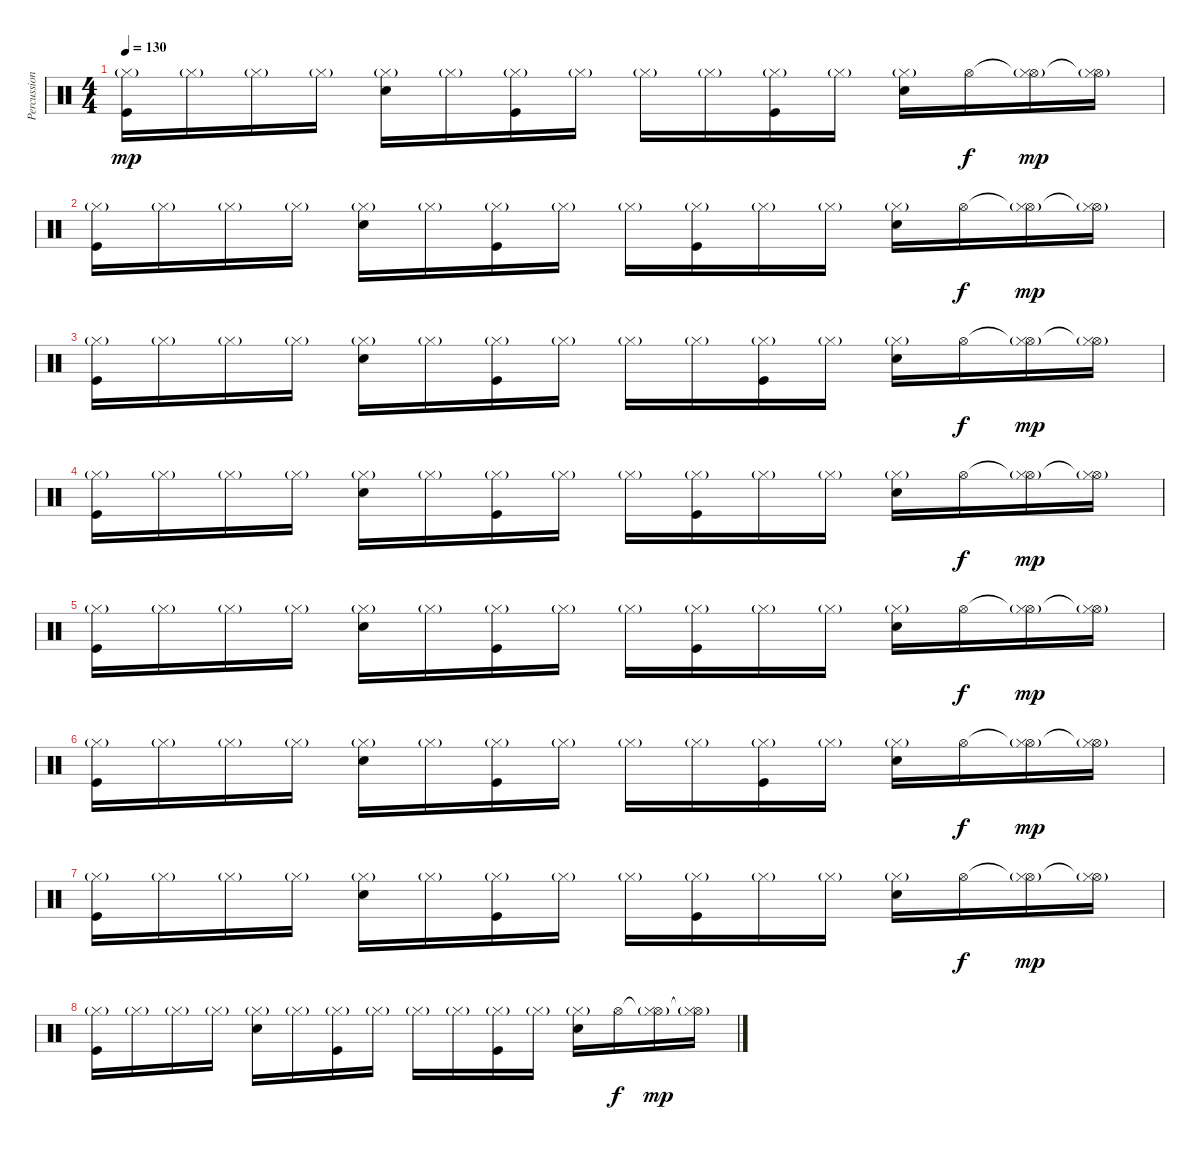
\track ("Percussion" "Percussion") {instrument percussion}
\staff {score}
\articulation defaults
\ts (4 4)
\tempo 130
\clef neutral
\ks c
("Hi-Hat (closed)"{g} "Kick (hit)").16{dy mp} "Hi-Hat (closed)"{g}.16 "Hi-Hat (closed)"{g}.16 "Hi-Hat (closed)"{g}.16 ("Hi-Hat (closed)"{g} "Hand Clap (hit)").16 "Hi-Hat (closed)"{g}.16 ("Hi-Hat (closed)"{g} "Kick (hit)").16 "Hi-Hat (closed)"{g}.16 "Hi-Hat (closed)"{g}.16 "Hi-Hat (closed)"{g}.16 ("Hi-Hat (closed)"{g} "Kick (hit)").16 "Hi-Hat (closed)"{g}.16 ("Hi-Hat (closed)"{g} "Hand Clap (hit)").16 "Hi-Hat (open)".16{dy f} ("Hi-Hat (open)"{t} "Hi-Hat (closed)"{g}).16{dy mp} ("Hi-Hat (open)"{t} "Hi-Hat (closed)"{g}).16 |
("Hi-Hat (closed)"{g} "Kick (hit)").16 "Hi-Hat (closed)"{g}.16 "Hi-Hat (closed)"{g}.16 "Hi-Hat (closed)"{g}.16 ("Hi-Hat (closed)"{g} "Hand Clap (hit)").16 "Hi-Hat (closed)"{g}.16 ("Hi-Hat (closed)"{g} "Kick (hit)").16 "Hi-Hat (closed)"{g}.16 "Hi-Hat (closed)"{g}.16 ("Hi-Hat (closed)"{g} "Kick (hit)").16 "Hi-Hat (closed)"{g}.16 "Hi-Hat (closed)"{g}.16 ("Hi-Hat (closed)"{g} "Hand Clap (hit)").16 "Hi-Hat (open)".16{dy f} ("Hi-Hat (open)"{t} "Hi-Hat (closed)"{g}).16{dy mp} ("Hi-Hat (open)"{t} "Hi-Hat (closed)"{g}).16 |
("Hi-Hat (closed)"{g} "Kick (hit)").16 "Hi-Hat (closed)"{g}.16 "Hi-Hat (closed)"{g}.16 "Hi-Hat (closed)"{g}.16 ("Hi-Hat (closed)"{g} "Hand Clap (hit)").16 "Hi-Hat (closed)"{g}.16 ("Hi-Hat (closed)"{g} "Kick (hit)").16 "Hi-Hat (closed)"{g}.16 "Hi-Hat (closed)"{g}.16 "Hi-Hat (closed)"{g}.16 ("Hi-Hat (closed)"{g} "Kick (hit)").16 "Hi-Hat (closed)"{g}.16 ("Hi-Hat (closed)"{g} "Hand Clap (hit)").16 "Hi-Hat (open)".16{dy f} ("Hi-Hat (open)"{t} "Hi-Hat (closed)"{g}).16{dy mp} ("Hi-Hat (open)"{t} "Hi-Hat (closed)"{g}).16 |
("Hi-Hat (closed)"{g} "Kick (hit)").16 "Hi-Hat (closed)"{g}.16 "Hi-Hat (closed)"{g}.16 "Hi-Hat (closed)"{g}.16 ("Hi-Hat (closed)"{g} "Hand Clap (hit)").16 "Hi-Hat (closed)"{g}.16 ("Hi-Hat (closed)"{g} "Kick (hit)").16 "Hi-Hat (closed)"{g}.16 "Hi-Hat (closed)"{g}.16 ("Hi-Hat (closed)"{g} "Kick (hit)").16 "Hi-Hat (closed)"{g}.16 "Hi-Hat (closed)"{g}.16 ("Hi-Hat (closed)"{g} "Hand Clap (hit)").16 "Hi-Hat (open)".16{dy f} ("Hi-Hat (open)"{t} "Hi-Hat (closed)"{g}).16{dy mp} ("Hi-Hat (open)"{t} "Hi-Hat (closed)"{g}).16 |
("Hi-Hat (closed)"{g} "Kick (hit)").16 "Hi-Hat (closed)"{g}.16 "Hi-Hat (closed)"{g}.16 "Hi-Hat (closed)"{g}.16 ("Hi-Hat (closed)"{g} "Hand Clap (hit)").16 "Hi-Hat (closed)"{g}.16 ("Hi-Hat (closed)"{g} "Kick (hit)").16 "Hi-Hat (closed)"{g}.16 "Hi-Hat (closed)"{g}.16 ("Hi-Hat (closed)"{g} "Kick (hit)").16 "Hi-Hat (closed)"{g}.16 "Hi-Hat (closed)"{g}.16 ("Hi-Hat (closed)"{g} "Hand Clap (hit)").16 "Hi-Hat (open)".16{dy f} ("Hi-Hat (open)"{t} "Hi-Hat (closed)"{g}).16{dy mp} ("Hi-Hat (open)"{t} "Hi-Hat (closed)"{g}).16 |
("Hi-Hat (closed)"{g} "Kick (hit)").16 "Hi-Hat (closed)"{g}.16 "Hi-Hat (closed)"{g}.16 "Hi-Hat (closed)"{g}.16 ("Hi-Hat (closed)"{g} "Hand Clap (hit)").16 "Hi-Hat (closed)"{g}.16 ("Hi-Hat (closed)"{g} "Kick (hit)").16 "Hi-Hat (closed)"{g}.16 "Hi-Hat (closed)"{g}.16 "Hi-Hat (closed)"{g}.16 ("Hi-Hat (closed)"{g} "Kick (hit)").16 "Hi-Hat (closed)"{g}.16 ("Hi-Hat (closed)"{g} "Hand Clap (hit)").16 "Hi-Hat (open)".16{dy f} ("Hi-Hat (open)"{t} "Hi-Hat (closed)"{g}).16{dy mp} ("Hi-Hat (open)"{t} "Hi-Hat (closed)"{g}).16 |
("Hi-Hat (closed)"{g} "Kick (hit)").16 "Hi-Hat (closed)"{g}.16 "Hi-Hat (closed)"{g}.16 "Hi-Hat (closed)"{g}.16 ("Hi-Hat (closed)"{g} "Hand Clap (hit)").16 "Hi-Hat (closed)"{g}.16 ("Hi-Hat (closed)"{g} "Kick (hit)").16 "Hi-Hat (closed)"{g}.16 "Hi-Hat (closed)"{g}.16 ("Hi-Hat (closed)"{g} "Kick (hit)").16 "Hi-Hat (closed)"{g}.16 "Hi-Hat (closed)"{g}.16 ("Hi-Hat (closed)"{g} "Hand Clap (hit)").16 "Hi-Hat (open)".16{dy f} ("Hi-Hat (open)"{t} "Hi-Hat (closed)"{g}).16{dy mp} ("Hi-Hat (open)"{t} "Hi-Hat (closed)"{g}).16 |
("Hi-Hat (closed)"{g} "Kick (hit)").16 "Hi-Hat (closed)"{g}.16 "Hi-Hat (closed)"{g}.16 "Hi-Hat (closed)"{g}.16 ("Hi-Hat (closed)"{g} "Hand Clap (hit)").16 "Hi-Hat (closed)"{g}.16 ("Hi-Hat (closed)"{g} "Kick (hit)").16 "Hi-Hat (closed)"{g}.16 "Hi-Hat (closed)"{g}.16 "Hi-Hat (closed)"{g}.16 ("Hi-Hat (closed)"{g} "Kick (hit)").16 "Hi-Hat (closed)"{g}.16 ("Hi-Hat (closed)"{g} "Hand Clap (hit)").16 "Hi-Hat (open)".16{dy f} ("Hi-Hat (open)"{t} "Hi-Hat (closed)"{g}).16{dy mp} ("Hi-Hat (open)"{t} "Hi-Hat (closed)"{g}).16
